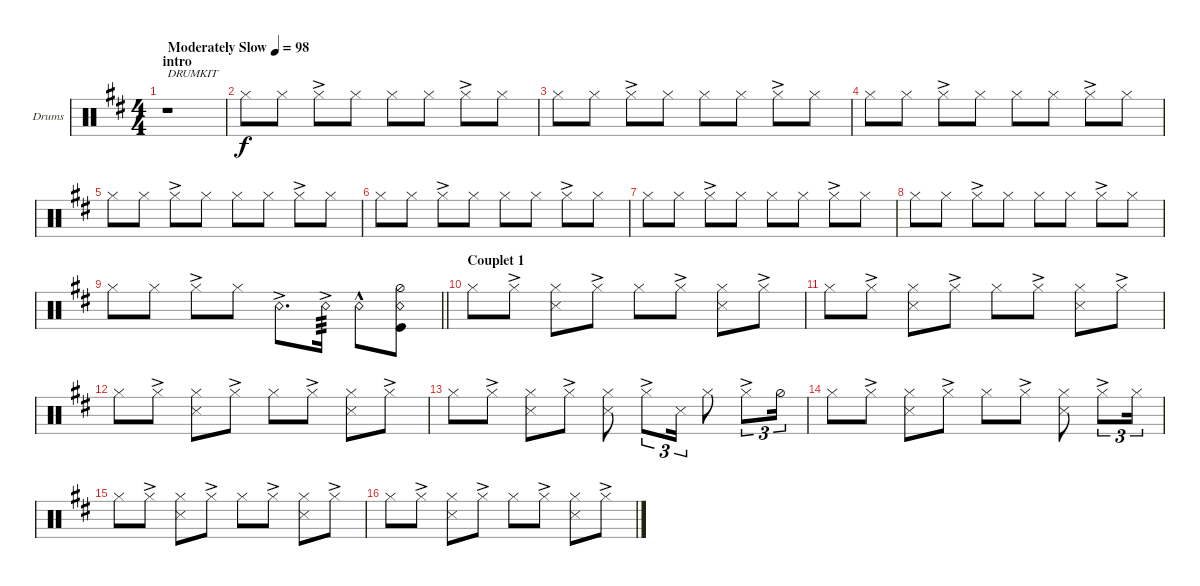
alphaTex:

\bracketExtendMode groupsimilarinstruments
\firstSystemTrackNameOrientation horizontal
\otherSystemsTrackNameOrientation horizontal
\track ("Drumkit" "Drums") {instrument percussion}
\staff {score}
\articulation defaults
\ts (4 4)
\beaming (8 2 2 2 2)
\section ("" "intro")
\tempo (98 "Moderately Slow")
\clef neutral
\ks d
r.1{txt "DRUMKIT" dy f} |
"Hi-Hat (closed)".8 "Hi-Hat (closed)".8 "Hi-Hat (closed)"{ac}.8 "Hi-Hat (closed)".8 "Hi-Hat (closed)".8 "Hi-Hat (closed)".8 "Hi-Hat (closed)"{ac}.8 "Hi-Hat (closed)".8 |
"Hi-Hat (closed)".8 "Hi-Hat (closed)".8 "Hi-Hat (closed)"{ac}.8 "Hi-Hat (closed)".8 "Hi-Hat (closed)".8 "Hi-Hat (closed)".8 "Hi-Hat (closed)"{ac}.8 "Hi-Hat (closed)".8 |
"Hi-Hat (closed)".8 "Hi-Hat (closed)".8 "Hi-Hat (closed)"{ac}.8 "Hi-Hat (closed)".8 "Hi-Hat (closed)".8 "Hi-Hat (closed)".8 "Hi-Hat (closed)"{ac}.8 "Hi-Hat (closed)".8 |
"Hi-Hat (closed)".8 "Hi-Hat (closed)".8 "Hi-Hat (closed)"{ac}.8 "Hi-Hat (closed)".8 "Hi-Hat (closed)".8 "Hi-Hat (closed)".8 "Hi-Hat (closed)"{ac}.8 "Hi-Hat (closed)".8 |
"Hi-Hat (closed)".8 "Hi-Hat (closed)".8 "Hi-Hat (closed)"{ac}.8 "Hi-Hat (closed)".8 "Hi-Hat (closed)".8 "Hi-Hat (closed)".8 "Hi-Hat (closed)"{ac}.8 "Hi-Hat (closed)".8 |
"Hi-Hat (closed)".8 "Hi-Hat (closed)".8 "Hi-Hat (closed)"{ac}.8 "Hi-Hat (closed)".8 "Hi-Hat (closed)".8 "Hi-Hat (closed)".8 "Hi-Hat (closed)"{ac}.8 "Hi-Hat (closed)".8 |
"Hi-Hat (closed)".8 "Hi-Hat (closed)".8 "Hi-Hat (closed)"{ac}.8 "Hi-Hat (closed)".8 "Hi-Hat (closed)".8 "Hi-Hat (closed)".8 "Hi-Hat (closed)"{ac}.8 "Hi-Hat (closed)".8 |
\barLineRight lightlight "Hi-Hat (closed)".8 "Hi-Hat (closed)".8 "Hi-Hat (closed)"{ac}.8 "Hi-Hat (closed)".8 "Snare (rim shot)"{ac}.8{d} "Snare (rim shot)"{ac}.16{tp 3} "Snare (rim shot)"{hac}.8
("Kick (hit)" "Hi-Hat (half)" "Snare (rim shot)").8 |
\section ("" "Couplet 1")
"Hi-Hat (closed)".8 "Hi-Hat (closed)"{ac}.8 ("Snare (side stick) 3" "Hi-Hat (closed)").8 "Hi-Hat (closed)"{ac}.8 "Hi-Hat (closed)".8 "Hi-Hat (closed)"{ac}.8 ("Snare (side stick) 3" "Hi-Hat (closed)").8 "Hi-Hat (closed)"{ac}.8 |
"Hi-Hat (closed)".8 "Hi-Hat (closed)"{ac}.8 ("Snare (side stick) 3" "Hi-Hat (closed)").8 "Hi-Hat (closed)"{ac}.8 "Hi-Hat (closed)".8 "Hi-Hat (closed)"{ac}.8 ("Snare (side stick) 3" "Hi-Hat (closed)").8 "Hi-Hat (closed)"{ac}.8 |
"Hi-Hat (closed)".8 "Hi-Hat (closed)"{ac}.8 ("Snare (side stick) 3" "Hi-Hat (closed)").8 "Hi-Hat (closed)"{ac}.8 "Hi-Hat (closed)".8 "Hi-Hat (closed)"{ac}.8 ("Snare (side stick) 3" "Hi-Hat (closed)").8 "Hi-Hat (closed)"{ac}.8 |
"Hi-Hat (closed)".8 "Hi-Hat (closed)"{ac}.8 ("Snare (side stick) 3" "Hi-Hat (closed)").8 "Hi-Hat (closed)"{ac}.8 ("Hi-Hat (closed)" "Snare (side stick) 3").8 "Hi-Hat (closed)"{ac}.8{tu (3 2)} "Snare (side stick) 3".16{tu (3 2)} "Hi-Hat (closed)".8 "Hi-Hat (closed)"{ac}.8{tu (3 2)} "Hi-Hat (half)".16{tu (3 2)} |
"Hi-Hat (closed)".8 "Hi-Hat (closed)"{ac}.8 ("Snare (side stick) 3" "Hi-Hat (closed)").8 "Hi-Hat (closed)"{ac}.8 "Hi-Hat (closed)".8 "Hi-Hat (closed)"{ac}.8 ("Snare (side stick) 3" "Hi-Hat (closed)").8 "Hi-Hat (closed)"{ac}.8{tu (3 2)} "Hi-Hat (closed)".16{tu (3 2)} |
"Hi-Hat (closed)".8 "Hi-Hat (closed)"{ac}.8 ("Snare (side stick) 3" "Hi-Hat (closed)").8 "Hi-Hat (closed)"{ac}.8 "Hi-Hat (closed)".8 "Hi-Hat (closed)"{ac}.8 ("Snare (side stick) 3" "Hi-Hat (closed)").8 "Hi-Hat (closed)"{ac}.8 |
"Hi-Hat (closed)".8 "Hi-Hat (closed)"{ac}.8 ("Snare (side stick) 3" "Hi-Hat (closed)").8 "Hi-Hat (closed)"{ac}.8 "Hi-Hat (closed)".8 "Hi-Hat (closed)"{ac}.8 ("Snare (side stick) 3" "Hi-Hat (closed)").8 "Hi-Hat (closed)"{ac}.8
